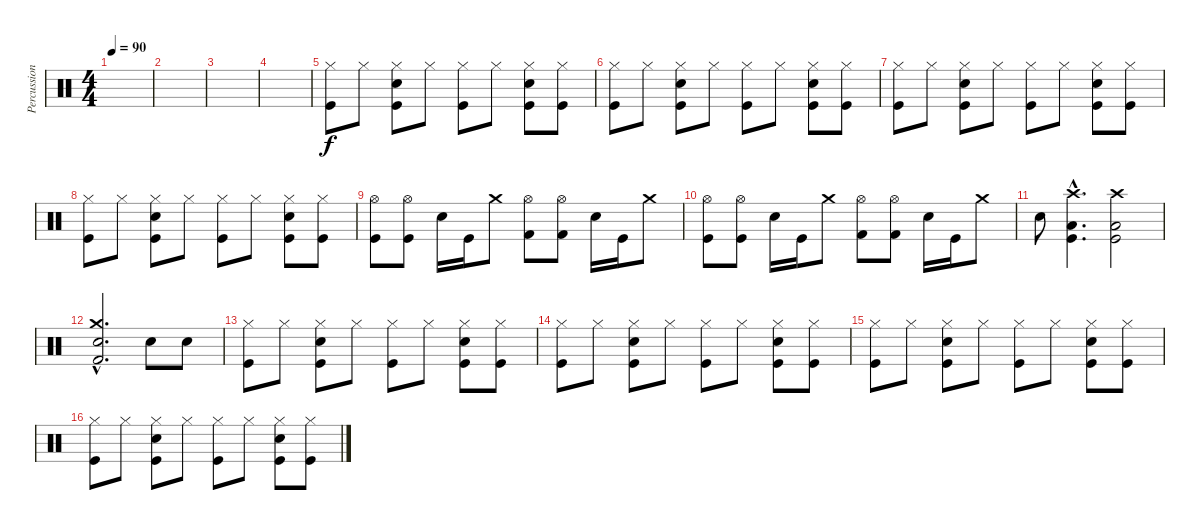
\track ("Percussion" "Percussion") {instrument percussion}
\staff {score}
\articulation defaults
\ts (4 4)
\tempo 90
\clef neutral
\ks c
|
|
|
|
("Hi-Hat (closed)" "Kick (hit)").8 "Hi-Hat (closed)".8 ("Hi-Hat (closed)" "Electric Snare (hit)" "Kick (hit)").8 "Hi-Hat (closed)".8 ("Hi-Hat (closed)" "Kick (hit)").8 "Hi-Hat (closed)".8 ("Hi-Hat (closed)" "Electric Snare (hit)" "Kick (hit)").8 ("Hi-Hat (closed)" "Kick (hit)").8 |
("Hi-Hat (closed)" "Kick (hit)").8 "Hi-Hat (closed)".8 ("Hi-Hat (closed)" "Electric Snare (hit)" "Kick (hit)").8 "Hi-Hat (closed)".8 ("Hi-Hat (closed)" "Kick (hit)").8 "Hi-Hat (closed)".8 ("Hi-Hat (closed)" "Electric Snare (hit)" "Kick (hit)").8 ("Hi-Hat (closed)" "Kick (hit)").8 |
("Hi-Hat (closed)" "Kick (hit)").8 "Hi-Hat (closed)".8 ("Hi-Hat (closed)" "Electric Snare (hit)" "Kick (hit)").8 "Hi-Hat (closed)".8 ("Hi-Hat (closed)" "Kick (hit)").8 "Hi-Hat (closed)".8 ("Hi-Hat (closed)" "Electric Snare (hit)" "Kick (hit)").8 ("Hi-Hat (closed)" "Kick (hit)").8 |
("Hi-Hat (closed)" "Kick (hit)").8 "Hi-Hat (closed)".8 ("Hi-Hat (closed)" "Electric Snare (hit)" "Kick (hit)").8 "Hi-Hat (closed)".8 ("Hi-Hat (closed)" "Kick (hit)").8 "Hi-Hat (closed)".8 ("Hi-Hat (closed)" "Electric Snare (hit)" "Kick (hit)").8 ("Hi-Hat (closed)" "Kick (hit)").8 |
("Hi-Hat (open)" "Kick (hit)").8 ("Hi-Hat (open)" "Kick (hit)").8 "Electric Snare (hit)".16 "Kick (hit)".16 "Crash medium (hit)".8 ("Hi-Hat (open)" "Kick (hit) 2").8 ("Hi-Hat (open)" "Kick (hit) 2").8 "Electric Snare (hit)".16 "Kick (hit)".16 "Crash medium (hit)".8 |
("Hi-Hat (open)" "Kick (hit)").8 ("Hi-Hat (open)" "Kick (hit)").8 "Electric Snare (hit)".16 "Kick (hit)".16 "Crash medium (hit)".8 ("Hi-Hat (open)" "Kick (hit) 2").8 ("Hi-Hat (open)" "Kick (hit) 2").8 "Electric Snare (hit)".16 "Kick (hit)".16 "Crash medium (hit)".8 |
"Electric Snare (hit)".8 ("Low Tom (hit)"{hac} "Crash high (hit)"{hac} "Kick (hit)"{hac}).4{d} ("Low Tom (hit)" "Crash high (hit)" "Kick (hit)").2 |
("Crash medium (hit)"{hac} "Kick (hit) 2"{hac} "Electric Snare (hit)"{hac}).2{d} "Electric Snare (hit)".8 "Electric Snare (hit)".8 |
("Hi-Hat (closed)" "Kick (hit)").8 "Hi-Hat (closed)".8 ("Hi-Hat (closed)" "Electric Snare (hit)" "Kick (hit)").8 "Hi-Hat (closed)".8 ("Hi-Hat (closed)" "Kick (hit)").8 "Hi-Hat (closed)".8 ("Hi-Hat (closed)" "Electric Snare (hit)" "Kick (hit)").8 ("Hi-Hat (closed)" "Kick (hit)").8 |
("Hi-Hat (closed)" "Kick (hit)").8 "Hi-Hat (closed)".8 ("Hi-Hat (closed)" "Electric Snare (hit)" "Kick (hit)").8 "Hi-Hat (closed)".8 ("Hi-Hat (closed)" "Kick (hit)").8 "Hi-Hat (closed)".8 ("Hi-Hat (closed)" "Electric Snare (hit)" "Kick (hit)").8 ("Hi-Hat (closed)" "Kick (hit)").8 |
("Hi-Hat (closed)" "Kick (hit)").8 "Hi-Hat (closed)".8 ("Hi-Hat (closed)" "Electric Snare (hit)" "Kick (hit)").8 "Hi-Hat (closed)".8 ("Hi-Hat (closed)" "Kick (hit)").8 "Hi-Hat (closed)".8 ("Hi-Hat (closed)" "Electric Snare (hit)" "Kick (hit)").8 ("Hi-Hat (closed)" "Kick (hit)").8 |
("Hi-Hat (closed)" "Kick (hit)").8 "Hi-Hat (closed)".8 ("Hi-Hat (closed)" "Electric Snare (hit)" "Kick (hit)").8 "Hi-Hat (closed)".8 ("Hi-Hat (closed)" "Kick (hit)").8 "Hi-Hat (closed)".8 ("Hi-Hat (closed)" "Electric Snare (hit)" "Kick (hit)").8 ("Hi-Hat (closed)" "Kick (hit)").8
